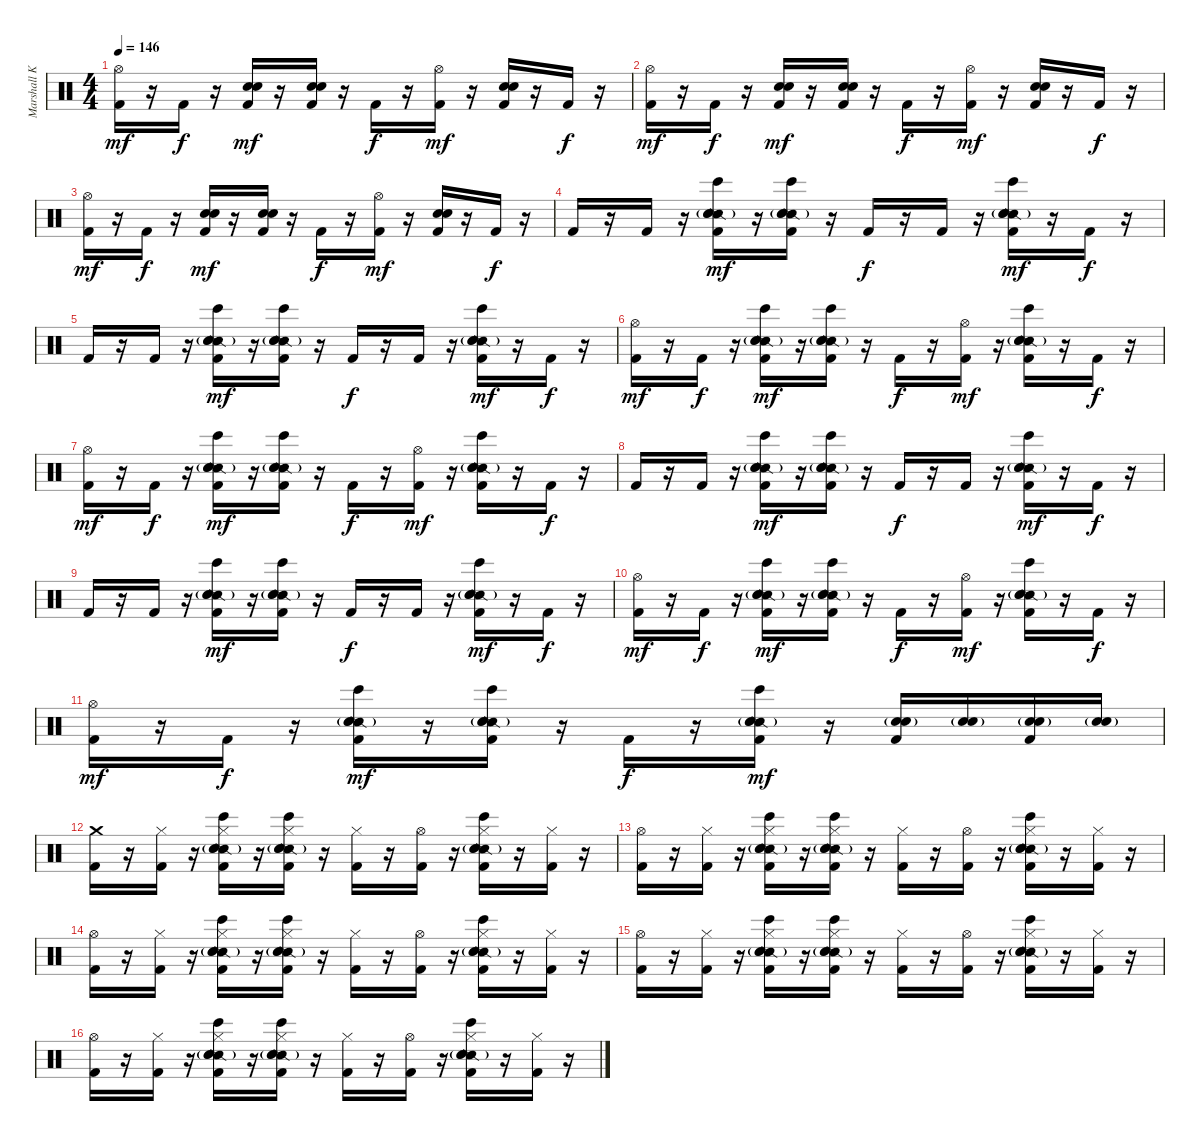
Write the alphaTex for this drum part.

\track ("Marshall Kilpatric" "Marshall K") {instrument percussion}
\staff {score}
\articulation defaults
\ts (4 4)
\tempo 146
\clef neutral
\ks c
("Hi-Hat (open)" "Kick (hit) 2").16{dy mf} r.16 "Kick (hit) 2".16{dy f} r.16 ("Hand Clap (hit)" "Electric Snare (hit)" "Kick (hit) 2").16{dy mf} r.16 ("Hand Clap (hit)" "Electric Snare (hit)" "Kick (hit) 2").16 r.16 "Kick (hit) 2".16{dy f} r.16 ("Hi-Hat (open)" "Kick (hit) 2").16{dy mf} r.16 ("Hand Clap (hit)" "Electric Snare (hit)" "Kick (hit) 2").16 r.16 "Kick (hit) 2".16{dy f} r.16 |
("Hi-Hat (open)" "Kick (hit) 2").16{dy mf} r.16 "Kick (hit) 2".16{dy f} r.16 ("Hand Clap (hit)" "Electric Snare (hit)" "Kick (hit) 2").16{dy mf} r.16 ("Hand Clap (hit)" "Electric Snare (hit)" "Kick (hit) 2").16 r.16 "Kick (hit) 2".16{dy f} r.16 ("Hi-Hat (open)" "Kick (hit) 2").16{dy mf} r.16 ("Hand Clap (hit)" "Electric Snare (hit)" "Kick (hit) 2").16 r.16 "Kick (hit) 2".16{dy f} r.16 |
("Hi-Hat (open)" "Kick (hit) 2").16{dy mf} r.16 "Kick (hit) 2".16{dy f} r.16 ("Hand Clap (hit)" "Electric Snare (hit)" "Kick (hit) 2").16{dy mf} r.16 ("Hand Clap (hit)" "Electric Snare (hit)" "Kick (hit) 2").16 r.16 "Kick (hit) 2".16{dy f} r.16 ("Hi-Hat (open)" "Kick (hit) 2").16{dy mf} r.16 ("Hand Clap (hit)" "Electric Snare (hit)" "Kick (hit) 2").16 r.16 "Kick (hit) 2".16{dy f} r.16 |
"Kick (hit) 2".16 r.16 "Kick (hit) 2".16 r.16 ("Snare (side stick) 2" "Snare (hit) 2"{g} "Bongo High (hit)" "Electric Snare (hit)" "Kick (hit) 2").16{dy mf} r.16 ("Snare (side stick) 2" "Snare (hit) 2"{g} "Bongo High (hit)" "Electric Snare (hit)" "Kick (hit) 2").16 r.16 "Kick (hit) 2".16{dy f} r.16 "Kick (hit) 2".16 r.16 ("Snare (side stick) 2" "Snare (hit) 2"{g} "Bongo High (hit)" "Electric Snare (hit)" "Kick (hit) 2").16{dy mf} r.16 "Kick (hit) 2".16{dy f} r.16 |
"Kick (hit) 2".16 r.16 "Kick (hit) 2".16 r.16 ("Snare (side stick) 2" "Snare (hit) 2"{g} "Bongo High (hit)" "Electric Snare (hit)" "Kick (hit) 2").16{dy mf} r.16 ("Snare (side stick) 2" "Snare (hit) 2"{g} "Bongo High (hit)" "Electric Snare (hit)" "Kick (hit) 2").16 r.16 "Kick (hit) 2".16{dy f} r.16 "Kick (hit) 2".16 r.16 ("Snare (side stick) 2" "Snare (hit) 2"{g} "Bongo High (hit)" "Electric Snare (hit)" "Kick (hit) 2").16{dy mf} r.16 "Kick (hit) 2".16{dy f} r.16 |
("Hi-Hat (open)" "Kick (hit) 2").16{dy mf} r.16 "Kick (hit) 2".16{dy f} r.16 ("Snare (side stick) 2" "Snare (hit) 2"{g} "Bongo High (hit)" "Electric Snare (hit)" "Kick (hit) 2").16{dy mf} r.16 ("Snare (side stick) 2" "Snare (hit) 2"{g} "Bongo High (hit)" "Electric Snare (hit)" "Kick (hit) 2").16 r.16 "Kick (hit) 2".16{dy f} r.16 ("Hi-Hat (open)" "Kick (hit) 2").16{dy mf} r.16 ("Snare (side stick) 2" "Snare (hit) 2"{g} "Bongo High (hit)" "Electric Snare (hit)" "Kick (hit) 2").16 r.16 "Kick (hit) 2".16{dy f} r.16 |
("Hi-Hat (open)" "Kick (hit) 2").16{dy mf} r.16 "Kick (hit) 2".16{dy f} r.16 ("Snare (side stick) 2" "Snare (hit) 2"{g} "Bongo High (hit)" "Electric Snare (hit)" "Kick (hit) 2").16{dy mf} r.16 ("Snare (side stick) 2" "Snare (hit) 2"{g} "Bongo High (hit)" "Electric Snare (hit)" "Kick (hit) 2").16 r.16 "Kick (hit) 2".16{dy f} r.16 ("Hi-Hat (open)" "Kick (hit) 2").16{dy mf} r.16 ("Snare (side stick) 2" "Snare (hit) 2"{g} "Bongo High (hit)" "Electric Snare (hit)" "Kick (hit) 2").16 r.16 "Kick (hit) 2".16{dy f} r.16 |
"Kick (hit) 2".16 r.16 "Kick (hit) 2".16 r.16 ("Snare (side stick) 2" "Snare (hit) 2"{g} "Bongo High (hit)" "Electric Snare (hit)" "Kick (hit) 2").16{dy mf} r.16 ("Snare (side stick) 2" "Snare (hit) 2"{g} "Bongo High (hit)" "Electric Snare (hit)" "Kick (hit) 2").16 r.16 "Kick (hit) 2".16{dy f} r.16 "Kick (hit) 2".16 r.16 ("Snare (side stick) 2" "Snare (hit) 2"{g} "Bongo High (hit)" "Electric Snare (hit)" "Kick (hit) 2").16{dy mf} r.16 "Kick (hit) 2".16{dy f} r.16 |
"Kick (hit) 2".16 r.16 "Kick (hit) 2".16 r.16 ("Snare (side stick) 2" "Snare (hit) 2"{g} "Bongo High (hit)" "Electric Snare (hit)" "Kick (hit) 2").16{dy mf} r.16 ("Snare (side stick) 2" "Snare (hit) 2"{g} "Bongo High (hit)" "Electric Snare (hit)" "Kick (hit) 2").16 r.16 "Kick (hit) 2".16{dy f} r.16 "Kick (hit) 2".16 r.16 ("Snare (side stick) 2" "Snare (hit) 2"{g} "Bongo High (hit)" "Electric Snare (hit)" "Kick (hit) 2").16{dy mf} r.16 "Kick (hit) 2".16{dy f} r.16 |
("Hi-Hat (open)" "Kick (hit) 2").16{dy mf} r.16 "Kick (hit) 2".16{dy f} r.16 ("Snare (side stick) 2" "Snare (hit) 2"{g} "Bongo High (hit)" "Electric Snare (hit)" "Kick (hit) 2").16{dy mf} r.16 ("Snare (side stick) 2" "Snare (hit) 2"{g} "Bongo High (hit)" "Electric Snare (hit)" "Kick (hit) 2").16 r.16 "Kick (hit) 2".16{dy f} r.16 ("Hi-Hat (open)" "Kick (hit) 2").16{dy mf} r.16 ("Snare (side stick) 2" "Snare (hit) 2"{g} "Bongo High (hit)" "Electric Snare (hit)" "Kick (hit) 2").16 r.16 "Kick (hit) 2".16{dy f} r.16 |
("Hi-Hat (open)" "Kick (hit) 2").16{dy mf} r.16 "Kick (hit) 2".16{dy f} r.16 ("Snare (side stick) 2" "Snare (hit) 2"{g} "Bongo High (hit)" "Electric Snare (hit)" "Kick (hit) 2").16{dy mf} r.16 ("Snare (side stick) 2" "Snare (hit) 2"{g} "Bongo High (hit)" "Electric Snare (hit)" "Kick (hit) 2").16 r.16 "Kick (hit) 2".16{dy f} r.16 ("Snare (side stick) 2" "Snare (hit) 2"{g} "Bongo High (hit)" "Electric Snare (hit)" "Kick (hit) 2").16{dy mf} r.16 ("Snare (hit) 2"{g} "Electric Snare (hit)" "Kick (hit) 2").16 ("Snare (hit) 2"{g} "Electric Snare (hit)").16 ("Snare (hit) 2"{g} "Electric Snare (hit)" "Kick (hit) 2").16 ("Snare (hit) 2"{g} "Electric Snare (hit)").16 |
("Crash medium (hit)" "Kick (hit) 2").16 r.16 ("Hi-Hat (closed)" "Kick (hit) 2").16 r.16 ("Snare (side stick) 2" "Snare (hit) 2"{g} "Bongo High (hit)" "Electric Snare (hit)" "Hi-Hat (closed)" "Kick (hit) 2").16 r.16 ("Snare (side stick) 2" "Snare (hit) 2"{g} "Bongo High (hit)" "Electric Snare (hit)" "Hi-Hat (closed)" "Kick (hit) 2").16 r.16 ("Hi-Hat (closed)" "Kick (hit) 2").16 r.16 ("Hi-Hat (open)" "Kick (hit) 2").16 r.16 ("Snare (side stick) 2" "Snare (hit) 2"{g} "Bongo High (hit)" "Electric Snare (hit)" "Hi-Hat (closed)" "Kick (hit) 2").16 r.16 ("Hi-Hat (closed)" "Kick (hit) 2").16 r.16 |
("Hi-Hat (open)" "Kick (hit) 2").16 r.16 ("Hi-Hat (closed)" "Kick (hit) 2").16 r.16 ("Snare (side stick) 2" "Snare (hit) 2"{g} "Bongo High (hit)" "Electric Snare (hit)" "Hi-Hat (closed)" "Kick (hit) 2").16 r.16 ("Snare (side stick) 2" "Snare (hit) 2"{g} "Bongo High (hit)" "Electric Snare (hit)" "Hi-Hat (closed)" "Kick (hit) 2").16 r.16 ("Hi-Hat (closed)" "Kick (hit) 2").16 r.16 ("Hi-Hat (open)" "Kick (hit) 2").16 r.16 ("Snare (side stick) 2" "Snare (hit) 2"{g} "Bongo High (hit)" "Electric Snare (hit)" "Hi-Hat (closed)" "Kick (hit) 2").16 r.16 ("Hi-Hat (closed)" "Kick (hit) 2").16 r.16 |
("Hi-Hat (open)" "Kick (hit) 2").16 r.16 ("Hi-Hat (closed)" "Kick (hit) 2").16 r.16 ("Snare (side stick) 2" "Snare (hit) 2"{g} "Bongo High (hit)" "Electric Snare (hit)" "Hi-Hat (closed)" "Kick (hit) 2").16 r.16 ("Snare (side stick) 2" "Snare (hit) 2"{g} "Bongo High (hit)" "Electric Snare (hit)" "Hi-Hat (closed)" "Kick (hit) 2").16 r.16 ("Hi-Hat (closed)" "Kick (hit) 2").16 r.16 ("Hi-Hat (open)" "Kick (hit) 2").16 r.16 ("Snare (side stick) 2" "Snare (hit) 2"{g} "Bongo High (hit)" "Electric Snare (hit)" "Hi-Hat (closed)" "Kick (hit) 2").16 r.16 ("Hi-Hat (closed)" "Kick (hit) 2").16 r.16 |
("Hi-Hat (open)" "Kick (hit) 2").16 r.16 ("Hi-Hat (closed)" "Kick (hit) 2").16 r.16 ("Snare (side stick) 2" "Snare (hit) 2"{g} "Bongo High (hit)" "Electric Snare (hit)" "Hi-Hat (closed)" "Kick (hit) 2").16 r.16 ("Snare (side stick) 2" "Snare (hit) 2"{g} "Bongo High (hit)" "Electric Snare (hit)" "Hi-Hat (closed)" "Kick (hit) 2").16 r.16 ("Hi-Hat (closed)" "Kick (hit) 2").16 r.16 ("Hi-Hat (open)" "Kick (hit) 2").16 r.16 ("Snare (side stick) 2" "Snare (hit) 2"{g} "Bongo High (hit)" "Electric Snare (hit)" "Hi-Hat (closed)" "Kick (hit) 2").16 r.16 ("Hi-Hat (closed)" "Kick (hit) 2").16 r.16 |
("Hi-Hat (open)" "Kick (hit) 2").16 r.16 ("Hi-Hat (closed)" "Kick (hit) 2").16 r.16 ("Snare (side stick) 2" "Snare (hit) 2"{g} "Bongo High (hit)" "Electric Snare (hit)" "Hi-Hat (closed)" "Kick (hit) 2").16 r.16 ("Snare (side stick) 2" "Snare (hit) 2"{g} "Bongo High (hit)" "Electric Snare (hit)" "Hi-Hat (closed)" "Kick (hit) 2").16 r.16 ("Hi-Hat (closed)" "Kick (hit) 2").16 r.16 ("Hi-Hat (open)" "Kick (hit) 2").16 r.16 ("Snare (side stick) 2" "Snare (hit) 2"{g} "Bongo High (hit)" "Electric Snare (hit)" "Hi-Hat (closed)" "Kick (hit) 2").16 r.16 ("Hi-Hat (closed)" "Kick (hit) 2").16 r.16
